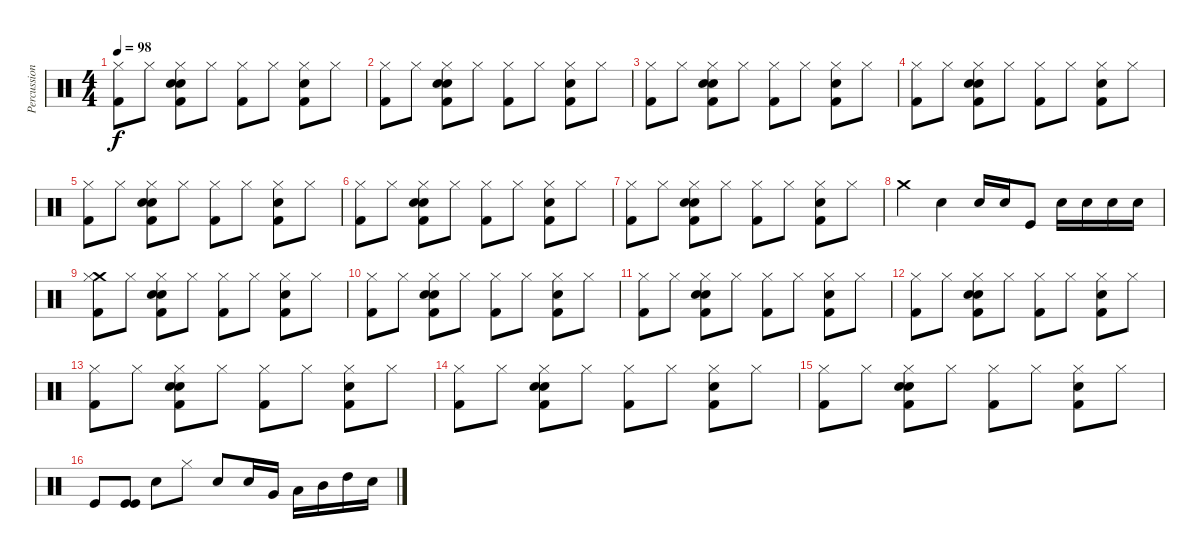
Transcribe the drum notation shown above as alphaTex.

\track ("Percussion" "Percussion") {instrument percussion}
\staff {score}
\articulation defaults
\ts (4 4)
\tempo 98
\clef neutral
\ks c
("Kick (hit) 2" "Hi-Hat (closed)").8{dy f} "Hi-Hat (closed)".8 ("Hi-Hat (closed)" "Snare (hit)" "Snare (hit) 2" "Kick (hit) 2").8 "Hi-Hat (closed)".8 ("Hi-Hat (closed)" "Kick (hit) 2").8 "Hi-Hat (closed)".8 ("Hi-Hat (closed)" "Snare (hit) 2" "Kick (hit) 2").8 "Hi-Hat (closed)".8 |
("Kick (hit) 2" "Hi-Hat (closed)").8 "Hi-Hat (closed)".8 ("Hi-Hat (closed)" "Snare (hit)" "Snare (hit) 2" "Kick (hit) 2").8 "Hi-Hat (closed)".8 ("Hi-Hat (closed)" "Kick (hit) 2").8 "Hi-Hat (closed)".8 ("Hi-Hat (closed)" "Snare (hit) 2" "Kick (hit) 2").8 "Hi-Hat (closed)".8 |
("Kick (hit) 2" "Hi-Hat (closed)").8 "Hi-Hat (closed)".8 ("Hi-Hat (closed)" "Snare (hit)" "Snare (hit) 2" "Kick (hit) 2").8 "Hi-Hat (closed)".8 ("Hi-Hat (closed)" "Kick (hit) 2").8 "Hi-Hat (closed)".8 ("Hi-Hat (closed)" "Snare (hit) 2" "Kick (hit) 2").8 "Hi-Hat (closed)".8 |
("Kick (hit) 2" "Hi-Hat (closed)").8 "Hi-Hat (closed)".8 ("Hi-Hat (closed)" "Snare (hit)" "Snare (hit) 2" "Kick (hit) 2").8 "Hi-Hat (closed)".8 ("Hi-Hat (closed)" "Kick (hit) 2").8 "Hi-Hat (closed)".8 ("Hi-Hat (closed)" "Snare (hit) 2" "Kick (hit) 2").8 "Hi-Hat (closed)".8 |
("Kick (hit) 2" "Hi-Hat (closed)").8 "Hi-Hat (closed)".8 ("Hi-Hat (closed)" "Snare (hit)" "Snare (hit) 2" "Kick (hit) 2").8 "Hi-Hat (closed)".8 ("Hi-Hat (closed)" "Kick (hit) 2").8 "Hi-Hat (closed)".8 ("Hi-Hat (closed)" "Snare (hit) 2" "Kick (hit) 2").8 "Hi-Hat (closed)".8 |
("Kick (hit) 2" "Hi-Hat (closed)").8 "Hi-Hat (closed)".8 ("Hi-Hat (closed)" "Snare (hit)" "Snare (hit) 2" "Kick (hit) 2").8 "Hi-Hat (closed)".8 ("Hi-Hat (closed)" "Kick (hit) 2").8 "Hi-Hat (closed)".8 ("Hi-Hat (closed)" "Snare (hit) 2" "Kick (hit) 2").8 "Hi-Hat (closed)".8 |
("Kick (hit) 2" "Hi-Hat (closed)").8 "Hi-Hat (closed)".8 ("Hi-Hat (closed)" "Snare (hit)" "Snare (hit) 2" "Kick (hit) 2").8 "Hi-Hat (closed)".8 ("Hi-Hat (closed)" "Kick (hit) 2").8 "Hi-Hat (closed)".8 ("Hi-Hat (closed)" "Snare (hit) 2" "Kick (hit) 2").8 "Hi-Hat (closed)".8 |
"Crash medium (hit)".4 "Snare (hit) 2".4 "Snare (hit) 2".16 "Snare (hit) 2".16 "Kick (hit)".8 "Snare (hit) 2".16 "Snare (hit) 2".16 "Snare (hit) 2".16 "Snare (hit) 2".16 |
("Kick (hit) 2" "Crash medium (hit)" "Hi-Hat (closed)").8 "Hi-Hat (closed)".8 ("Hi-Hat (closed)" "Snare (hit)" "Snare (hit) 2" "Kick (hit) 2").8 "Hi-Hat (closed)".8 ("Hi-Hat (closed)" "Kick (hit) 2").8 "Hi-Hat (closed)".8 ("Hi-Hat (closed)" "Snare (hit) 2" "Kick (hit) 2").8 "Hi-Hat (closed)".8 |
("Kick (hit) 2" "Hi-Hat (closed)").8 "Hi-Hat (closed)".8 ("Hi-Hat (closed)" "Snare (hit)" "Snare (hit) 2" "Kick (hit) 2").8 "Hi-Hat (closed)".8 ("Hi-Hat (closed)" "Kick (hit) 2").8 "Hi-Hat (closed)".8 ("Hi-Hat (closed)" "Snare (hit) 2" "Kick (hit) 2").8 "Hi-Hat (closed)".8 |
("Kick (hit) 2" "Hi-Hat (closed)").8 "Hi-Hat (closed)".8 ("Hi-Hat (closed)" "Snare (hit)" "Snare (hit) 2" "Kick (hit) 2").8 "Hi-Hat (closed)".8 ("Hi-Hat (closed)" "Kick (hit) 2").8 "Hi-Hat (closed)".8 ("Hi-Hat (closed)" "Snare (hit) 2" "Kick (hit) 2").8 "Hi-Hat (closed)".8 |
("Kick (hit) 2" "Hi-Hat (closed)").8 "Hi-Hat (closed)".8 ("Hi-Hat (closed)" "Snare (hit)" "Snare (hit) 2" "Kick (hit) 2").8 "Hi-Hat (closed)".8 ("Hi-Hat (closed)" "Kick (hit) 2").8 "Hi-Hat (closed)".8 ("Hi-Hat (closed)" "Snare (hit) 2" "Kick (hit) 2").8 "Hi-Hat (closed)".8 |
("Kick (hit) 2" "Hi-Hat (closed)").8 "Hi-Hat (closed)".8 ("Hi-Hat (closed)" "Snare (hit)" "Snare (hit) 2" "Kick (hit) 2").8 "Hi-Hat (closed)".8 ("Hi-Hat (closed)" "Kick (hit) 2").8 "Hi-Hat (closed)".8 ("Hi-Hat (closed)" "Snare (hit) 2" "Kick (hit) 2").8 "Hi-Hat (closed)".8 |
("Kick (hit) 2" "Hi-Hat (closed)").8 "Hi-Hat (closed)".8 ("Hi-Hat (closed)" "Snare (hit)" "Snare (hit) 2" "Kick (hit) 2").8 "Hi-Hat (closed)".8 ("Hi-Hat (closed)" "Kick (hit) 2").8 "Hi-Hat (closed)".8 ("Hi-Hat (closed)" "Snare (hit) 2" "Kick (hit) 2").8 "Hi-Hat (closed)".8 |
("Kick (hit) 2" "Hi-Hat (closed)").8 "Hi-Hat (closed)".8 ("Hi-Hat (closed)" "Snare (hit)" "Snare (hit) 2" "Kick (hit) 2").8 "Hi-Hat (closed)".8 ("Hi-Hat (closed)" "Kick (hit) 2").8 "Hi-Hat (closed)".8 ("Hi-Hat (closed)" "Snare (hit) 2" "Kick (hit) 2").8 "Hi-Hat (closed)".8 |
"Kick (hit)".8 ("Kick (hit)" "Kick (hit)").8 "Snare (hit) 2".8 "Hi-Hat (closed)".8 "Snare (hit) 2".8 "Snare (hit) 2".16 "Very Low Tom (hit)".16 "Low Tom (hit)".16 "Mid Tom (hit)".16 "High Tom (hit)".16 "Electric Snare (hit)".16
